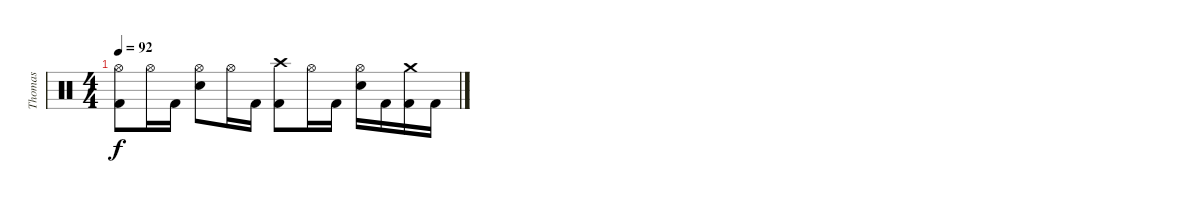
\track ("Thomas" "Thomas") {instrument percussion}
\staff {score}
\articulation defaults
\ts (4 4)
\tempo 92
\clef neutral
\ks c
("Hi-Hat (open)" "Kick (hit) 2").8{dy f} "Hi-Hat (open)".16 "Kick (hit) 2".16 ("Hi-Hat (open)" "Electric Snare (hit)").8 "Hi-Hat (open)".16 "Kick (hit) 2".16 ("Crash high (hit)" "Kick (hit) 2").8 "Hi-Hat (open)".16 "Kick (hit) 2".16 ("Hi-Hat (open)" "Electric Snare (hit)").16 "Kick (hit) 2".16 ("Crash medium (hit)" "Kick (hit) 2").16 "Kick (hit) 2".16
